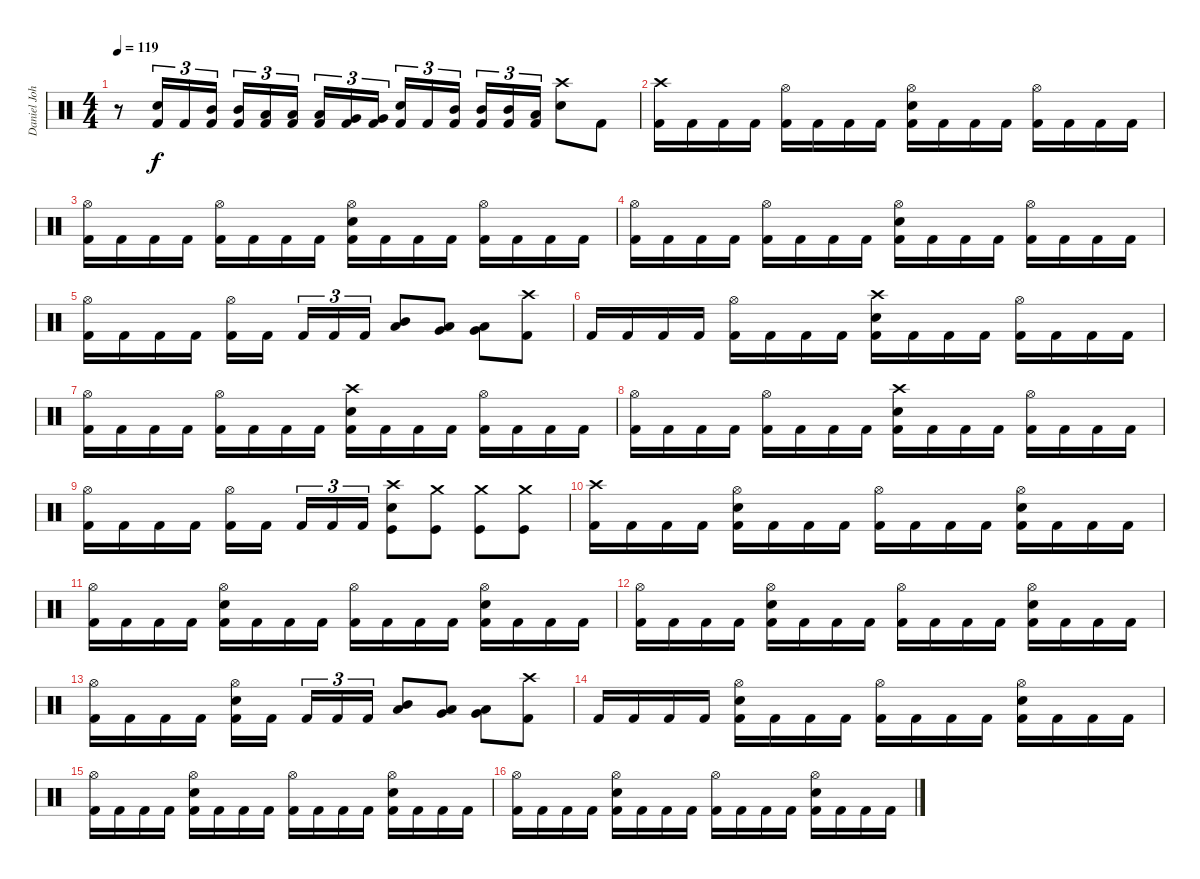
\track ("Daniel John Erlandson (Drums)" "Daniel Joh") {instrument percussion}
\staff {score}
\articulation defaults
\ts (4 4)
\tempo 119
\clef neutral
\ks c
r.8{dy f} ("Kick (hit) 2" "Snare (hit) 2").16{tu (3 2)} "Kick (hit) 2".16{tu (3 2)} ("Kick (hit) 2" "Mid Tom (hit)").16{tu (3 2)} ("Kick (hit) 2" "Mid Tom (hit)").16{tu (3 2)} ("Kick (hit) 2" "Low Tom (hit)").16{tu (3 2)} ("Kick (hit) 2" "Low Tom (hit)").16{tu (3 2)} ("Kick (hit) 2" "Low Tom (hit)").16{tu (3 2)} ("Kick (hit) 2" "Very Low Tom (hit)").16{tu (3 2)} ("Kick (hit) 2" "Very Low Tom (hit)").16{tu (3 2)} ("Kick (hit) 2" "Snare (hit) 2").16{tu (3 2)} "Kick (hit) 2".16{tu (3 2)} ("Kick (hit) 2" "Mid Tom (hit)").16{tu (3 2)} ("Kick (hit) 2" "Mid Tom (hit)").16{tu (3 2)} ("Kick (hit) 2" "Mid Tom (hit)").16{tu (3 2)} ("Kick (hit) 2" "Low Tom (hit)").16{tu (3 2)} ("Snare (hit) 2" "Crash high (hit)").8 "Kick (hit) 2".8 |
("Kick (hit) 2" "Crash high (hit)").16 "Kick (hit) 2".16 "Kick (hit) 2".16 "Kick (hit) 2".16 ("Kick (hit) 2" "Hi-Hat (open)").16 "Kick (hit) 2".16 "Kick (hit) 2".16 "Kick (hit) 2".16 ("Kick (hit) 2" "Snare (hit) 2" "Hi-Hat (open)").16 "Kick (hit) 2".16 "Kick (hit) 2".16 "Kick (hit) 2".16 ("Kick (hit) 2" "Hi-Hat (open)").16 "Kick (hit) 2".16 "Kick (hit) 2".16 "Kick (hit) 2".16 |
("Kick (hit) 2" "Hi-Hat (open)").16 "Kick (hit) 2".16 "Kick (hit) 2".16 "Kick (hit) 2".16 ("Kick (hit) 2" "Hi-Hat (open)").16 "Kick (hit) 2".16 "Kick (hit) 2".16 "Kick (hit) 2".16 ("Kick (hit) 2" "Snare (hit) 2" "Hi-Hat (open)").16 "Kick (hit) 2".16 "Kick (hit) 2".16 "Kick (hit) 2".16 ("Kick (hit) 2" "Hi-Hat (open)").16 "Kick (hit) 2".16 "Kick (hit) 2".16 "Kick (hit) 2".16 |
("Kick (hit) 2" "Hi-Hat (open)").16 "Kick (hit) 2".16 "Kick (hit) 2".16 "Kick (hit) 2".16 ("Kick (hit) 2" "Hi-Hat (open)").16 "Kick (hit) 2".16 "Kick (hit) 2".16 "Kick (hit) 2".16 ("Kick (hit) 2" "Snare (hit) 2" "Hi-Hat (open)").16 "Kick (hit) 2".16 "Kick (hit) 2".16 "Kick (hit) 2".16 ("Kick (hit) 2" "Hi-Hat (open)").16 "Kick (hit) 2".16 "Kick (hit) 2".16 "Kick (hit) 2".16 |
("Kick (hit) 2" "Hi-Hat (open)").16 "Kick (hit) 2".16 "Kick (hit) 2".16 "Kick (hit) 2".16 ("Kick (hit) 2" "Hi-Hat (open)").16 "Kick (hit) 2".16 "Kick (hit) 2".16{tu (3 2)} "Kick (hit) 2".16{tu (3 2)} "Kick (hit) 2".16{tu (3 2)} ("Low Tom (hit)" "Mid Tom (hit)").8 ("Very Low Tom (hit)" "Low Tom (hit)").8 ("Low Floor Tom (hit)" "Very Low Tom (hit)").8 ("Kick (hit) 2" "Crash high (hit)").8 |
"Kick (hit) 2".16 "Kick (hit) 2".16 "Kick (hit) 2".16 "Kick (hit) 2".16 ("Kick (hit) 2" "Hi-Hat (open)").16 "Kick (hit) 2".16 "Kick (hit) 2".16 "Kick (hit) 2".16 ("Kick (hit) 2" "Snare (hit) 2" "Crash high (hit)").16 "Kick (hit) 2".16 "Kick (hit) 2".16 "Kick (hit) 2".16 ("Kick (hit) 2" "Hi-Hat (open)").16 "Kick (hit) 2".16 "Kick (hit) 2".16 "Kick (hit) 2".16 |
("Kick (hit) 2" "Hi-Hat (open)").16 "Kick (hit) 2".16 "Kick (hit) 2".16 "Kick (hit) 2".16 ("Kick (hit) 2" "Hi-Hat (open)").16 "Kick (hit) 2".16 "Kick (hit) 2".16 "Kick (hit) 2".16 ("Kick (hit) 2" "Snare (hit) 2" "Crash high (hit)").16 "Kick (hit) 2".16 "Kick (hit) 2".16 "Kick (hit) 2".16 ("Kick (hit) 2" "Hi-Hat (open)").16 "Kick (hit) 2".16 "Kick (hit) 2".16 "Kick (hit) 2".16 |
("Kick (hit) 2" "Hi-Hat (open)").16 "Kick (hit) 2".16 "Kick (hit) 2".16 "Kick (hit) 2".16 ("Kick (hit) 2" "Hi-Hat (open)").16 "Kick (hit) 2".16 "Kick (hit) 2".16 "Kick (hit) 2".16 ("Kick (hit) 2" "Snare (hit) 2" "Crash high (hit)").16 "Kick (hit) 2".16 "Kick (hit) 2".16 "Kick (hit) 2".16 ("Kick (hit) 2" "Hi-Hat (open)").16 "Kick (hit) 2".16 "Kick (hit) 2".16 "Kick (hit) 2".16 |
("Kick (hit) 2" "Hi-Hat (open)").16 "Kick (hit) 2".16 "Kick (hit) 2".16 "Kick (hit) 2".16 ("Kick (hit) 2" "Hi-Hat (open)").16 "Kick (hit) 2".16 "Kick (hit) 2".16{tu (3 2)} "Kick (hit) 2".16{tu (3 2)} "Kick (hit) 2".16{tu (3 2)} ("Kick (hit)" "Snare (hit) 2" "Crash high (hit)").8 ("Kick (hit)" "Crash medium (hit)").8 ("Kick (hit)" "Crash medium (hit)").8 ("Kick (hit)" "Crash medium (hit)").8 |
("Kick (hit) 2" "Crash high (hit)").16 "Kick (hit) 2".16 "Kick (hit) 2".16 "Kick (hit) 2".16 ("Kick (hit) 2" "Snare (hit) 2" "Hi-Hat (open)").16 "Kick (hit) 2".16 "Kick (hit) 2".16 "Kick (hit) 2".16 ("Kick (hit) 2" "Hi-Hat (open)").16 "Kick (hit) 2".16 "Kick (hit) 2".16 "Kick (hit) 2".16 ("Kick (hit) 2" "Snare (hit) 2" "Hi-Hat (open)").16 "Kick (hit) 2".16 "Kick (hit) 2".16 "Kick (hit) 2".16 |
("Kick (hit) 2" "Hi-Hat (open)").16 "Kick (hit) 2".16 "Kick (hit) 2".16 "Kick (hit) 2".16 ("Kick (hit) 2" "Snare (hit) 2" "Hi-Hat (open)").16 "Kick (hit) 2".16 "Kick (hit) 2".16 "Kick (hit) 2".16 ("Kick (hit) 2" "Hi-Hat (open)").16 "Kick (hit) 2".16 "Kick (hit) 2".16 "Kick (hit) 2".16 ("Kick (hit) 2" "Snare (hit) 2" "Hi-Hat (open)").16 "Kick (hit) 2".16 "Kick (hit) 2".16 "Kick (hit) 2".16 |
("Kick (hit) 2" "Hi-Hat (open)").16 "Kick (hit) 2".16 "Kick (hit) 2".16 "Kick (hit) 2".16 ("Kick (hit) 2" "Snare (hit) 2" "Hi-Hat (open)").16 "Kick (hit) 2".16 "Kick (hit) 2".16 "Kick (hit) 2".16 ("Kick (hit) 2" "Hi-Hat (open)").16 "Kick (hit) 2".16 "Kick (hit) 2".16 "Kick (hit) 2".16 ("Kick (hit) 2" "Snare (hit) 2" "Hi-Hat (open)").16 "Kick (hit) 2".16 "Kick (hit) 2".16 "Kick (hit) 2".16 |
("Kick (hit) 2" "Hi-Hat (open)").16 "Kick (hit) 2".16 "Kick (hit) 2".16 "Kick (hit) 2".16 ("Kick (hit) 2" "Snare (hit) 2" "Hi-Hat (open)").16 "Kick (hit) 2".16 "Kick (hit) 2".16{tu (3 2)} "Kick (hit) 2".16{tu (3 2)} "Kick (hit) 2".16{tu (3 2)} ("Low Tom (hit)" "Mid Tom (hit)").8 ("Very Low Tom (hit)" "Low Tom (hit)").8 ("Low Floor Tom (hit)" "Very Low Tom (hit)").8 ("Kick (hit) 2" "Crash high (hit)").8 |
"Kick (hit) 2".16 "Kick (hit) 2".16 "Kick (hit) 2".16 "Kick (hit) 2".16 ("Kick (hit) 2" "Snare (hit) 2" "Hi-Hat (open)").16 "Kick (hit) 2".16 "Kick (hit) 2".16 "Kick (hit) 2".16 ("Kick (hit) 2" "Hi-Hat (open)").16 "Kick (hit) 2".16 "Kick (hit) 2".16 "Kick (hit) 2".16 ("Kick (hit) 2" "Snare (hit) 2" "Hi-Hat (open)").16 "Kick (hit) 2".16 "Kick (hit) 2".16 "Kick (hit) 2".16 |
("Kick (hit) 2" "Hi-Hat (open)").16 "Kick (hit) 2".16 "Kick (hit) 2".16 "Kick (hit) 2".16 ("Kick (hit) 2" "Snare (hit) 2" "Hi-Hat (open)").16 "Kick (hit) 2".16 "Kick (hit) 2".16 "Kick (hit) 2".16 ("Kick (hit) 2" "Hi-Hat (open)").16 "Kick (hit) 2".16 "Kick (hit) 2".16 "Kick (hit) 2".16 ("Kick (hit) 2" "Snare (hit) 2" "Hi-Hat (open)").16 "Kick (hit) 2".16 "Kick (hit) 2".16 "Kick (hit) 2".16 |
("Kick (hit) 2" "Hi-Hat (open)").16 "Kick (hit) 2".16 "Kick (hit) 2".16 "Kick (hit) 2".16 ("Kick (hit) 2" "Snare (hit) 2" "Hi-Hat (open)").16 "Kick (hit) 2".16 "Kick (hit) 2".16 "Kick (hit) 2".16 ("Kick (hit) 2" "Hi-Hat (open)").16 "Kick (hit) 2".16 "Kick (hit) 2".16 "Kick (hit) 2".16 ("Kick (hit) 2" "Snare (hit) 2" "Hi-Hat (open)").16 "Kick (hit) 2".16 "Kick (hit) 2".16 "Kick (hit) 2".16
